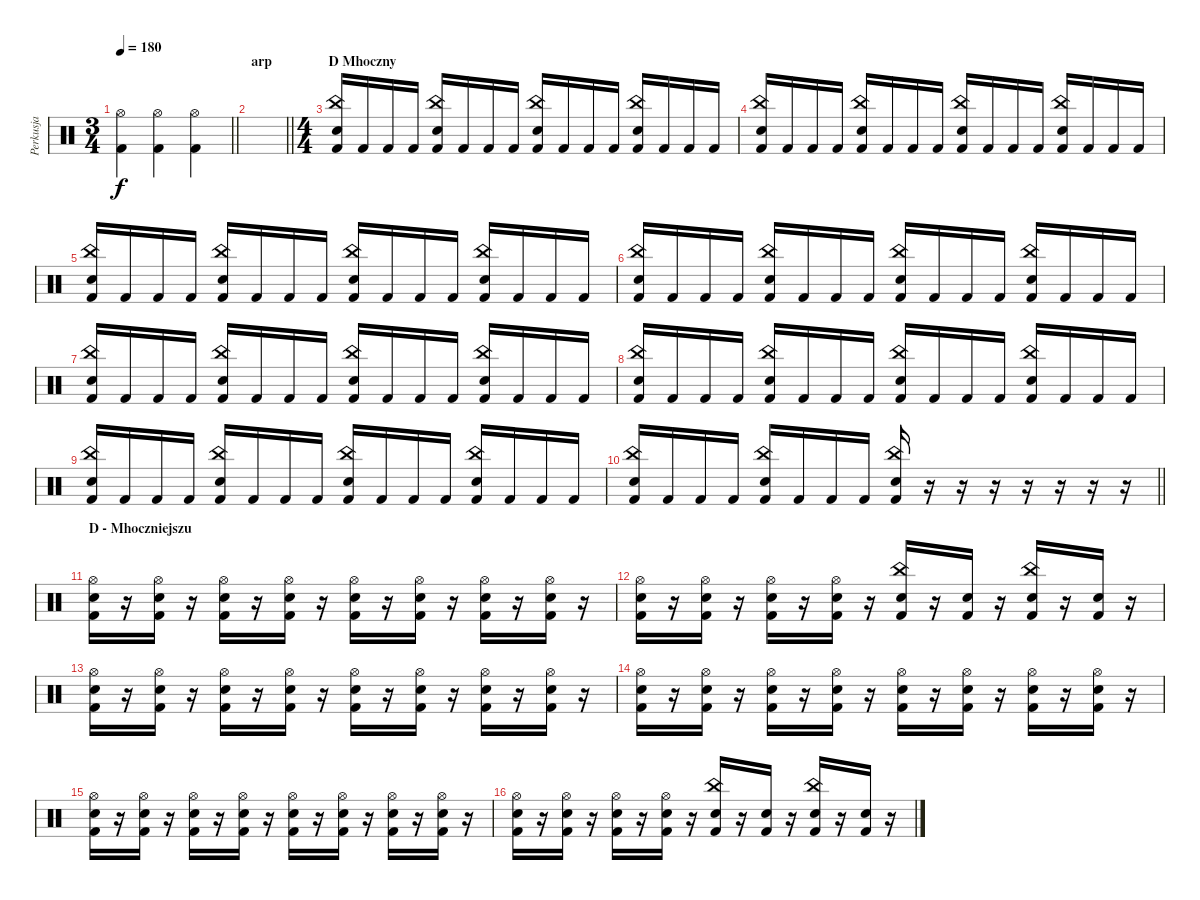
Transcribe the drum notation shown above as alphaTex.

\track ("Perkusja" "Perkusja") {instrument percussion}
\staff {score}
\articulation defaults
\ts (3 4)
\tempo 180
\clef neutral
\barLineRight lightlight
\ks c
("Hi-Hat (open)" "Kick (hit) 2").4{dy f} ("Hi-Hat (open)" "Kick (hit) 2").4 ("Hi-Hat (open)" "Kick (hit) 2").4 |
\section ("" "arp")
\barLineRight lightlight
|
\ts (4 4)
\section ("" "D Mhoczny")
("China (hit)" "Snare (hit) 2" "Kick (hit) 2").16 "Kick (hit) 2".16 "Kick (hit) 2".16 "Kick (hit) 2".16 ("China (hit)" "Snare (hit) 2" "Kick (hit) 2").16 "Kick (hit) 2".16 "Kick (hit) 2".16 "Kick (hit) 2".16 ("China (hit)" "Snare (hit) 2" "Kick (hit) 2").16 "Kick (hit) 2".16 "Kick (hit) 2".16 "Kick (hit) 2".16 ("China (hit)" "Snare (hit) 2" "Kick (hit) 2").16 "Kick (hit) 2".16 "Kick (hit) 2".16 "Kick (hit) 2".16 |
("China (hit)" "Snare (hit) 2" "Kick (hit) 2").16 "Kick (hit) 2".16 "Kick (hit) 2".16 "Kick (hit) 2".16 ("China (hit)" "Snare (hit) 2" "Kick (hit) 2").16 "Kick (hit) 2".16 "Kick (hit) 2".16 "Kick (hit) 2".16 ("China (hit)" "Snare (hit) 2" "Kick (hit) 2").16 "Kick (hit) 2".16 "Kick (hit) 2".16 "Kick (hit) 2".16 ("China (hit)" "Snare (hit) 2" "Kick (hit) 2").16 "Kick (hit) 2".16 "Kick (hit) 2".16 "Kick (hit) 2".16 |
("China (hit)" "Snare (hit) 2" "Kick (hit) 2").16 "Kick (hit) 2".16 "Kick (hit) 2".16 "Kick (hit) 2".16 ("China (hit)" "Snare (hit) 2" "Kick (hit) 2").16 "Kick (hit) 2".16 "Kick (hit) 2".16 "Kick (hit) 2".16 ("China (hit)" "Snare (hit) 2" "Kick (hit) 2").16 "Kick (hit) 2".16 "Kick (hit) 2".16 "Kick (hit) 2".16 ("China (hit)" "Snare (hit) 2" "Kick (hit) 2").16 "Kick (hit) 2".16 "Kick (hit) 2".16 "Kick (hit) 2".16 |
("China (hit)" "Snare (hit) 2" "Kick (hit) 2").16 "Kick (hit) 2".16 "Kick (hit) 2".16 "Kick (hit) 2".16 ("China (hit)" "Snare (hit) 2" "Kick (hit) 2").16 "Kick (hit) 2".16 "Kick (hit) 2".16 "Kick (hit) 2".16 ("China (hit)" "Snare (hit) 2" "Kick (hit) 2").16 "Kick (hit) 2".16 "Kick (hit) 2".16 "Kick (hit) 2".16 ("China (hit)" "Snare (hit) 2" "Kick (hit) 2").16 "Kick (hit) 2".16 "Kick (hit) 2".16 "Kick (hit) 2".16 |
("China (hit)" "Snare (hit) 2" "Kick (hit) 2").16 "Kick (hit) 2".16 "Kick (hit) 2".16 "Kick (hit) 2".16 ("China (hit)" "Snare (hit) 2" "Kick (hit) 2").16 "Kick (hit) 2".16 "Kick (hit) 2".16 "Kick (hit) 2".16 ("China (hit)" "Snare (hit) 2" "Kick (hit) 2").16 "Kick (hit) 2".16 "Kick (hit) 2".16 "Kick (hit) 2".16 ("China (hit)" "Snare (hit) 2" "Kick (hit) 2").16 "Kick (hit) 2".16 "Kick (hit) 2".16 "Kick (hit) 2".16 |
("China (hit)" "Snare (hit) 2" "Kick (hit) 2").16 "Kick (hit) 2".16 "Kick (hit) 2".16 "Kick (hit) 2".16 ("China (hit)" "Snare (hit) 2" "Kick (hit) 2").16 "Kick (hit) 2".16 "Kick (hit) 2".16 "Kick (hit) 2".16 ("China (hit)" "Snare (hit) 2" "Kick (hit) 2").16 "Kick (hit) 2".16 "Kick (hit) 2".16 "Kick (hit) 2".16 ("China (hit)" "Snare (hit) 2" "Kick (hit) 2").16 "Kick (hit) 2".16 "Kick (hit) 2".16 "Kick (hit) 2".16 |
("China (hit)" "Snare (hit) 2" "Kick (hit) 2").16 "Kick (hit) 2".16 "Kick (hit) 2".16 "Kick (hit) 2".16 ("China (hit)" "Snare (hit) 2" "Kick (hit) 2").16 "Kick (hit) 2".16 "Kick (hit) 2".16 "Kick (hit) 2".16 ("China (hit)" "Snare (hit) 2" "Kick (hit) 2").16 "Kick (hit) 2".16 "Kick (hit) 2".16 "Kick (hit) 2".16 ("China (hit)" "Snare (hit) 2" "Kick (hit) 2").16 "Kick (hit) 2".16 "Kick (hit) 2".16 "Kick (hit) 2".16 |
\barLineRight lightlight
("China (hit)" "Snare (hit) 2" "Kick (hit) 2").16 "Kick (hit) 2".16 "Kick (hit) 2".16 "Kick (hit) 2".16 ("China (hit)" "Snare (hit) 2" "Kick (hit) 2").16 "Kick (hit) 2".16 "Kick (hit) 2".16 "Kick (hit) 2".16 ("China (hit)" "Snare (hit) 2" "Kick (hit) 2").16 r.16 r.16 r.16 r.16 r.16 r.16 r.16 |
\section ("" "D - Mhoczniejszu")
("Hi-Hat (open)" "Snare (hit) 2" "Kick (hit) 2").16 r.16 ("Hi-Hat (open)" "Snare (hit) 2" "Kick (hit) 2").16 r.16 ("Hi-Hat (open)" "Snare (hit) 2" "Kick (hit) 2").16 r.16 ("Hi-Hat (open)" "Snare (hit) 2" "Kick (hit) 2").16 r.16 ("Hi-Hat (open)" "Snare (hit) 2" "Kick (hit) 2").16 r.16 ("Hi-Hat (open)" "Snare (hit) 2" "Kick (hit) 2").16 r.16 ("Hi-Hat (open)" "Snare (hit) 2" "Kick (hit) 2").16 r.16 ("Hi-Hat (open)" "Snare (hit) 2" "Kick (hit) 2").16 r.16 |
("Hi-Hat (open)" "Snare (hit) 2" "Kick (hit) 2").16 r.16 ("Hi-Hat (open)" "Snare (hit) 2" "Kick (hit) 2").16 r.16 ("Hi-Hat (open)" "Snare (hit) 2" "Kick (hit) 2").16 r.16 ("Hi-Hat (open)" "Snare (hit) 2" "Kick (hit) 2").16 r.16 ("China (hit)" "Snare (hit) 2" "Kick (hit) 2").16 r.16 ("Snare (hit) 2" "Kick (hit) 2").16 r.16 ("China (hit)" "Snare (hit) 2" "Kick (hit) 2").16 r.16 ("Snare (hit) 2" "Kick (hit) 2").16 r.16 |
("Hi-Hat (open)" "Snare (hit) 2" "Kick (hit) 2").16 r.16 ("Hi-Hat (open)" "Snare (hit) 2" "Kick (hit) 2").16 r.16 ("Hi-Hat (open)" "Snare (hit) 2" "Kick (hit) 2").16 r.16 ("Hi-Hat (open)" "Snare (hit) 2" "Kick (hit) 2").16 r.16 ("Hi-Hat (open)" "Snare (hit) 2" "Kick (hit) 2").16 r.16 ("Hi-Hat (open)" "Snare (hit) 2" "Kick (hit) 2").16 r.16 ("Hi-Hat (open)" "Snare (hit) 2" "Kick (hit) 2").16 r.16 ("Hi-Hat (open)" "Snare (hit) 2" "Kick (hit) 2").16 r.16 |
("Hi-Hat (open)" "Snare (hit) 2" "Kick (hit) 2").16 r.16 ("Hi-Hat (open)" "Snare (hit) 2" "Kick (hit) 2").16 r.16 ("Hi-Hat (open)" "Snare (hit) 2" "Kick (hit) 2").16 r.16 ("Hi-Hat (open)" "Snare (hit) 2" "Kick (hit) 2").16 r.16 ("Hi-Hat (open)" "Snare (hit) 2" "Kick (hit) 2").16 r.16 ("Hi-Hat (open)" "Snare (hit) 2" "Kick (hit) 2").16 r.16 ("Hi-Hat (open)" "Snare (hit) 2" "Kick (hit) 2").16 r.16 ("Hi-Hat (open)" "Snare (hit) 2" "Kick (hit) 2").16 r.16 |
("Hi-Hat (open)" "Snare (hit) 2" "Kick (hit) 2").16 r.16 ("Hi-Hat (open)" "Snare (hit) 2" "Kick (hit) 2").16 r.16 ("Hi-Hat (open)" "Snare (hit) 2" "Kick (hit) 2").16 r.16 ("Hi-Hat (open)" "Snare (hit) 2" "Kick (hit) 2").16 r.16 ("Hi-Hat (open)" "Snare (hit) 2" "Kick (hit) 2").16 r.16 ("Hi-Hat (open)" "Snare (hit) 2" "Kick (hit) 2").16 r.16 ("Hi-Hat (open)" "Snare (hit) 2" "Kick (hit) 2").16 r.16 ("Hi-Hat (open)" "Snare (hit) 2" "Kick (hit) 2").16 r.16 |
("Hi-Hat (open)" "Snare (hit) 2" "Kick (hit) 2").16 r.16 ("Hi-Hat (open)" "Snare (hit) 2" "Kick (hit) 2").16 r.16 ("Hi-Hat (open)" "Snare (hit) 2" "Kick (hit) 2").16 r.16 ("Hi-Hat (open)" "Snare (hit) 2" "Kick (hit) 2").16 r.16 ("China (hit)" "Snare (hit) 2" "Kick (hit) 2").16 r.16 ("Snare (hit) 2" "Kick (hit) 2").16 r.16 ("China (hit)" "Snare (hit) 2" "Kick (hit) 2").16 r.16 ("Snare (hit) 2" "Kick (hit) 2").16 r.16
